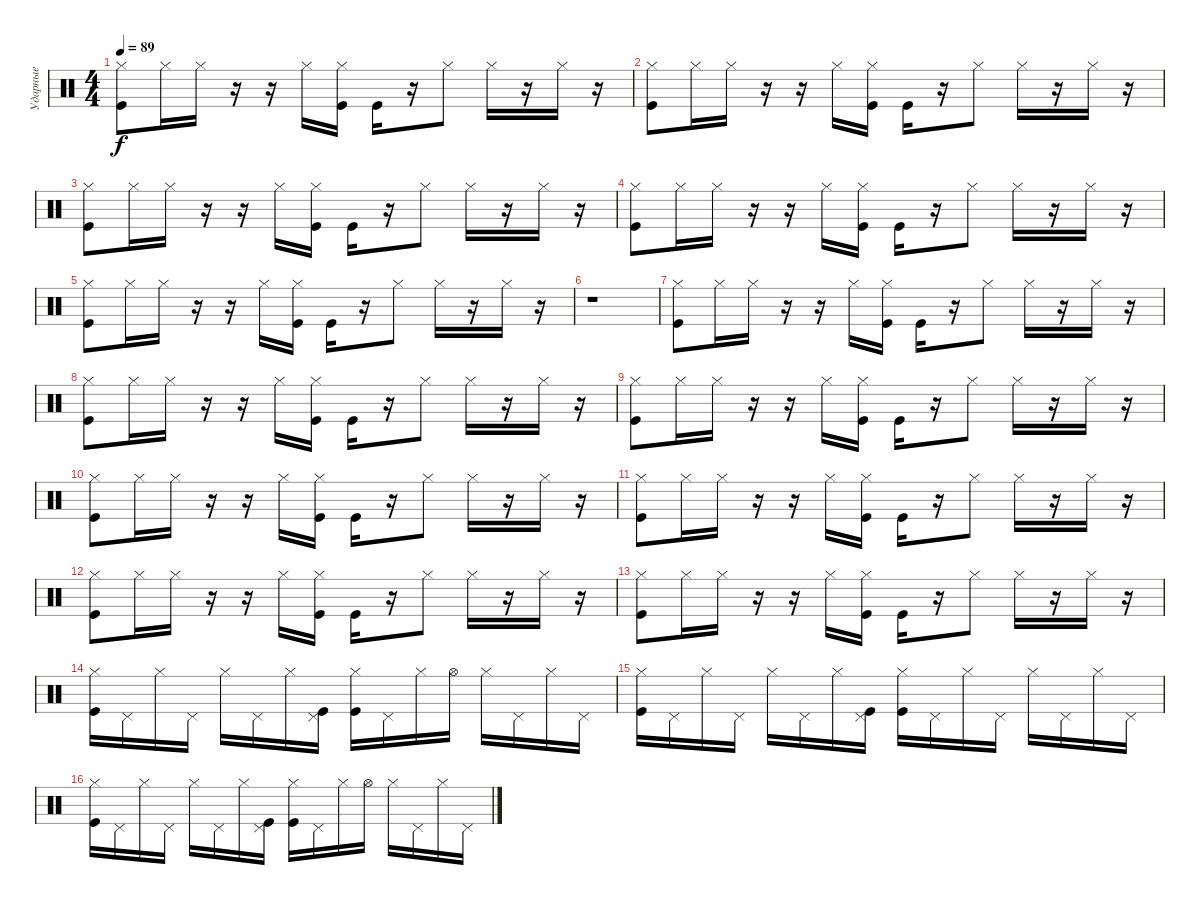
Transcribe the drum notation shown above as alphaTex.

\track ("Ударные" "Ударные") {instrument percussion}
\staff {score}
\articulation defaults
\ts (4 4)
\tempo 89
\clef neutral
\ks c
("Hi-Hat (closed)" "Kick (hit)").8{dy f} "Hi-Hat (closed)".16 "Hi-Hat (closed)".16 r.16 r.16 "Hi-Hat (closed)".16 ("Hi-Hat (closed)" "Kick (hit)").16 "Kick (hit)".16 r.16 "Hi-Hat (closed)".8 "Hi-Hat (closed)".16 r.16 "Hi-Hat (closed)".16 r.16 |
("Hi-Hat (closed)" "Kick (hit)").8 "Hi-Hat (closed)".16 "Hi-Hat (closed)".16 r.16 r.16 "Hi-Hat (closed)".16 ("Hi-Hat (closed)" "Kick (hit)").16 "Kick (hit)".16 r.16 "Hi-Hat (closed)".8 "Hi-Hat (closed)".16 r.16 "Hi-Hat (closed)".16 r.16 |
("Hi-Hat (closed)" "Kick (hit)").8 "Hi-Hat (closed)".16 "Hi-Hat (closed)".16 r.16 r.16 "Hi-Hat (closed)".16 ("Hi-Hat (closed)" "Kick (hit)").16 "Kick (hit)".16 r.16 "Hi-Hat (closed)".8 "Hi-Hat (closed)".16 r.16 "Hi-Hat (closed)".16 r.16 |
("Hi-Hat (closed)" "Kick (hit)").8 "Hi-Hat (closed)".16 "Hi-Hat (closed)".16 r.16 r.16 "Hi-Hat (closed)".16 ("Hi-Hat (closed)" "Kick (hit)").16 "Kick (hit)".16 r.16 "Hi-Hat (closed)".8 "Hi-Hat (closed)".16 r.16 "Hi-Hat (closed)".16 r.16 |
("Hi-Hat (closed)" "Kick (hit)").8 "Hi-Hat (closed)".16 "Hi-Hat (closed)".16 r.16 r.16 "Hi-Hat (closed)".16 ("Hi-Hat (closed)" "Kick (hit)").16 "Kick (hit)".16 r.16 "Hi-Hat (closed)".8 "Hi-Hat (closed)".16 r.16 "Hi-Hat (closed)".16 r.16 |
r.1 |
("Hi-Hat (closed)" "Kick (hit)").8 "Hi-Hat (closed)".16 "Hi-Hat (closed)".16 r.16 r.16 "Hi-Hat (closed)".16 ("Hi-Hat (closed)" "Kick (hit)").16 "Kick (hit)".16 r.16 "Hi-Hat (closed)".8 "Hi-Hat (closed)".16 r.16 "Hi-Hat (closed)".16 r.16 |
("Hi-Hat (closed)" "Kick (hit)").8 "Hi-Hat (closed)".16 "Hi-Hat (closed)".16 r.16 r.16 "Hi-Hat (closed)".16 ("Hi-Hat (closed)" "Kick (hit)").16 "Kick (hit)".16 r.16 "Hi-Hat (closed)".8 "Hi-Hat (closed)".16 r.16 "Hi-Hat (closed)".16 r.16 |
("Hi-Hat (closed)" "Kick (hit)").8 "Hi-Hat (closed)".16 "Hi-Hat (closed)".16 r.16 r.16 "Hi-Hat (closed)".16 ("Hi-Hat (closed)" "Kick (hit)").16 "Kick (hit)".16 r.16 "Hi-Hat (closed)".8 "Hi-Hat (closed)".16 r.16 "Hi-Hat (closed)".16 r.16 |
("Hi-Hat (closed)" "Kick (hit)").8 "Hi-Hat (closed)".16 "Hi-Hat (closed)".16 r.16 r.16 "Hi-Hat (closed)".16 ("Hi-Hat (closed)" "Kick (hit)").16 "Kick (hit)".16 r.16 "Hi-Hat (closed)".8 "Hi-Hat (closed)".16 r.16 "Hi-Hat (closed)".16 r.16 |
("Hi-Hat (closed)" "Kick (hit)").8 "Hi-Hat (closed)".16 "Hi-Hat (closed)".16 r.16 r.16 "Hi-Hat (closed)".16 ("Hi-Hat (closed)" "Kick (hit)").16 "Kick (hit)".16 r.16 "Hi-Hat (closed)".8 "Hi-Hat (closed)".16 r.16 "Hi-Hat (closed)".16 r.16 |
("Hi-Hat (closed)" "Kick (hit)").8 "Hi-Hat (closed)".16 "Hi-Hat (closed)".16 r.16 r.16 "Hi-Hat (closed)".16 ("Hi-Hat (closed)" "Kick (hit)").16 "Kick (hit)".16 r.16 "Hi-Hat (closed)".8 "Hi-Hat (closed)".16 r.16 "Hi-Hat (closed)".16 r.16 |
("Hi-Hat (closed)" "Kick (hit)").8 "Hi-Hat (closed)".16 "Hi-Hat (closed)".16 r.16 r.16 "Hi-Hat (closed)".16 ("Hi-Hat (closed)" "Kick (hit)").16 "Kick (hit)".16 r.16 "Hi-Hat (closed)".8 "Hi-Hat (closed)".16 r.16 "Hi-Hat (closed)".16 r.16 |
("Hi-Hat (closed)" "Kick (hit)").16 "Pedal Hi-Hat (hit)".16 "Hi-Hat (closed)".16 "Pedal Hi-Hat (hit)".16 "Hi-Hat (closed)".16 "Pedal Hi-Hat (hit)".16 "Hi-Hat (closed)".16 ("Kick (hit)" "Pedal Hi-Hat (hit)").16 ("Hi-Hat (closed)" "Kick (hit)").16 "Pedal Hi-Hat (hit)".16 "Hi-Hat (closed)".16 "Hi-Hat (open)".16 "Hi-Hat (closed)".16 "Pedal Hi-Hat (hit)".16 "Hi-Hat (closed)".16 "Pedal Hi-Hat (hit)".16 |
("Hi-Hat (closed)" "Kick (hit)").16 "Pedal Hi-Hat (hit)".16 "Hi-Hat (closed)".16 "Pedal Hi-Hat (hit)".16 "Hi-Hat (closed)".16 "Pedal Hi-Hat (hit)".16 "Hi-Hat (closed)".16 ("Kick (hit)" "Pedal Hi-Hat (hit)").16 ("Hi-Hat (closed)" "Kick (hit)").16 "Pedal Hi-Hat (hit)".16 "Hi-Hat (closed)".16 "Pedal Hi-Hat (hit)".16 "Hi-Hat (closed)".16 "Pedal Hi-Hat (hit)".16 "Hi-Hat (closed)".16 "Pedal Hi-Hat (hit)".16 |
("Hi-Hat (closed)" "Kick (hit)").16 "Pedal Hi-Hat (hit)".16 "Hi-Hat (closed)".16 "Pedal Hi-Hat (hit)".16 "Hi-Hat (closed)".16 "Pedal Hi-Hat (hit)".16 "Hi-Hat (closed)".16 ("Kick (hit)" "Pedal Hi-Hat (hit)").16 ("Hi-Hat (closed)" "Kick (hit)").16 "Pedal Hi-Hat (hit)".16 "Hi-Hat (closed)".16 "Hi-Hat (open)".16 "Hi-Hat (closed)".16 "Pedal Hi-Hat (hit)".16 "Hi-Hat (closed)".16 "Pedal Hi-Hat (hit)".16
